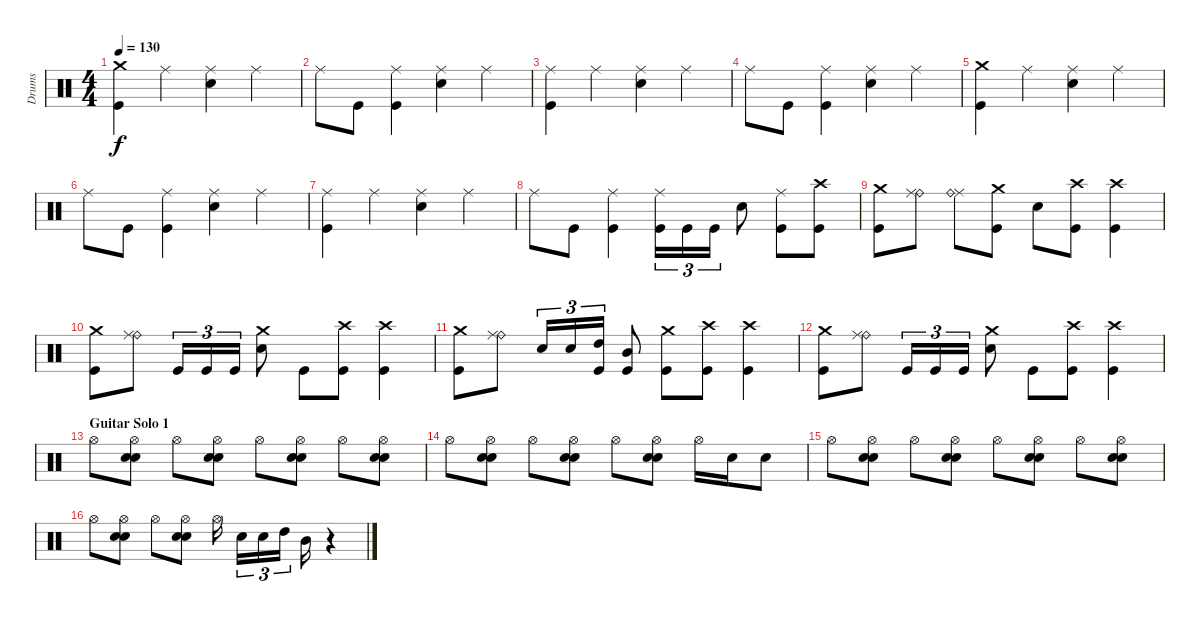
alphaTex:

\track ("Drums" "Drums") {instrument percussion}
\staff {score}
\articulation defaults
\ts (4 4)
\tempo 130
\clef neutral
\ks c
("Crash medium (hit)" "Kick (hit)").4{dy f} "Ride (middle)".4 ("Ride (middle)" "Snare (hit) 2").4 "Ride (middle)".4 |
"Ride (middle)".8 "Kick (hit)".8 ("Ride (middle)" "Kick (hit)").4 ("Ride (middle)" "Snare (hit) 2").4 "Ride (middle)".4 |
("Ride (middle)" "Kick (hit)").4 "Ride (middle)".4 ("Ride (middle)" "Snare (hit) 2").4 "Ride (middle)".4 |
"Ride (middle)".8 "Kick (hit)".8 ("Ride (middle)" "Kick (hit)").4 ("Ride (middle)" "Snare (hit) 2").4 "Ride (middle)".4 |
("Crash medium (hit)" "Kick (hit)").4 "Ride (middle)".4 ("Ride (middle)" "Snare (hit) 2").4 "Ride (middle)".4 |
"Ride (middle)".8 "Kick (hit)".8 ("Ride (middle)" "Kick (hit)").4 ("Ride (middle)" "Snare (hit) 2").4 "Ride (middle)".4 |
("Ride (middle)" "Kick (hit)").4 "Ride (middle)".4 ("Ride (middle)" "Snare (hit) 2").4 "Ride (middle)".4 |
"Ride (middle)".8 "Kick (hit)".8 ("Ride (middle)" "Kick (hit)").4 ("Ride (middle)" "Kick (hit)").16{tu (3 2)} "Kick (hit)".16{tu (3 2)} "Kick (hit)".16{tu (3 2)} "Snare (hit) 2".8 ("Ride (middle)" "Kick (hit)").8 ("Crash high (hit)" "Kick (hit)").8 |
("Crash medium (hit)" "Kick (hit)").8 ("Ride (bell)" "Ride (middle)").8 ("Ride (middle)" "Ride (bell)").8 ("Crash medium (hit)" "Kick (hit)").8 "Snare (hit) 2".8 ("Crash high (hit)" "Kick (hit)").8 ("Crash high (hit)" "Kick (hit)").4 |
("Crash medium (hit)" "Kick (hit)").8 ("Ride (bell)" "Ride (middle)").8 "Kick (hit)".16{tu (3 2)} "Kick (hit)".16{tu (3 2)} "Kick (hit)".16{tu (3 2)} ("Crash medium (hit)" "Snare (hit) 2").8 "Kick (hit)".8 ("Crash high (hit)" "Kick (hit)").8 ("Crash high (hit)" "Kick (hit)").4 |
("Crash medium (hit)" "Kick (hit)").8 ("Ride (bell)" "Ride (middle)").8 "Snare (hit) 2".16{tu (3 2)} "Snare (hit) 2".16{tu (3 2)} ("High Tom (hit)" "Kick (hit)").16{tu (3 2)} ("Mid Tom (hit)" "Kick (hit)").8 ("Crash medium (hit)" "Kick (hit)").8 ("Crash high (hit)" "Kick (hit)").8 ("Crash high (hit)" "Kick (hit)").4 |
("Crash medium (hit)" "Kick (hit)").8 ("Ride (bell)" "Ride (middle)").8 "Kick (hit)".16{tu (3 2)} "Kick (hit)".16{tu (3 2)} "Kick (hit)".16{tu (3 2)} ("Crash medium (hit)" "Snare (hit) 2").8 "Kick (hit)".8 ("Crash high (hit)" "Kick (hit)").8 ("Crash high (hit)" "Kick (hit)").4 |
\section ("" "Guitar Solo 1")
"Hi-Hat (open)".8 ("Hi-Hat (open)" "Electric Snare (hit)" "Snare (hit) 2").8 "Hi-Hat (open)".8 ("Hi-Hat (open)" "Electric Snare (hit)" "Snare (hit) 2").8 "Hi-Hat (open)".8 ("Hi-Hat (open)" "Electric Snare (hit)" "Snare (hit) 2").8 "Hi-Hat (open)".8 ("Hi-Hat (open)" "Electric Snare (hit)" "Snare (hit) 2").8 |
"Hi-Hat (open)".8 ("Hi-Hat (open)" "Electric Snare (hit)" "Snare (hit) 2").8 "Hi-Hat (open)".8 ("Hi-Hat (open)" "Electric Snare (hit)" "Snare (hit) 2").8 "Hi-Hat (open)".8 ("Hi-Hat (open)" "Electric Snare (hit)" "Snare (hit) 2").8 "Hi-Hat (open)".16 "Electric Snare (hit)".16 "Electric Snare (hit)".8 |
"Hi-Hat (open)".8 ("Hi-Hat (open)" "Electric Snare (hit)" "Snare (hit) 2").8 "Hi-Hat (open)".8 ("Hi-Hat (open)" "Electric Snare (hit)" "Snare (hit) 2").8 "Hi-Hat (open)".8 ("Hi-Hat (open)" "Electric Snare (hit)" "Snare (hit) 2").8 "Hi-Hat (open)".8 ("Hi-Hat (open)" "Electric Snare (hit)" "Snare (hit) 2").8 |
"Hi-Hat (open)".8 ("Hi-Hat (open)" "Electric Snare (hit)" "Snare (hit) 2").8 "Hi-Hat (open)".8 ("Hi-Hat (open)" "Electric Snare (hit)" "Snare (hit) 2").8 "Hi-Hat (open)".16 "Electric Snare (hit)".16{tu (3 2)} "Electric Snare (hit)".16{tu (3 2)} "High Tom (hit)".16{tu (3 2)} "Mid Tom (hit)".16 r.4
